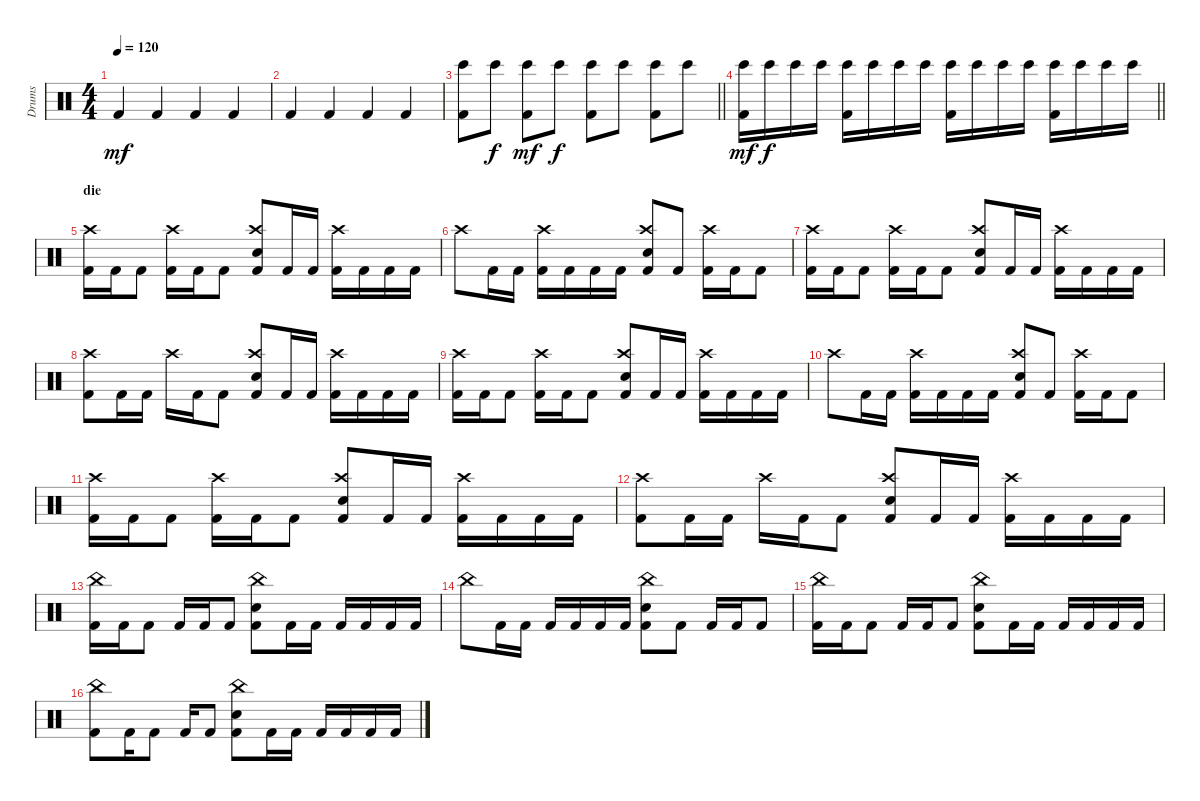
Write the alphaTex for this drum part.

\track ("Drums" "Drums") {instrument percussion}
\staff {score}
\articulation defaults
\ts (4 4)
\tempo 120
\clef neutral
\ks c "Kick (hit) 2".4{dy mf} "Kick (hit) 2".4 "Kick (hit) 2".4 "Kick (hit) 2".4
|
"Kick (hit) 2".4 "Kick (hit) 2".4 "Kick (hit) 2".4 "Kick (hit) 2".4 |
\barLineRight lightlight
("Bongo High (hit)" "Kick (hit) 2").8 "Bongo High (hit)".8{dy f} ("Bongo High (hit)" "Kick (hit) 2").8{dy mf} "Bongo High (hit)".8{dy f} ("Bongo High (hit)" "Kick (hit) 2").8 "Bongo High (hit)".8 ("Bongo High (hit)" "Kick (hit) 2").8 "Bongo High (hit)".8 |
\section ("" "")
\barLineRight lightlight
("Bongo High (hit)" "Kick (hit) 2").16{dy mf} "Bongo High (hit)".16{dy f} "Bongo High (hit)".16 "Bongo High (hit)".16 ("Bongo High (hit)" "Kick (hit) 2").16 "Bongo High (hit)".16 "Bongo High (hit)".16 "Bongo High (hit)".16 ("Bongo High (hit)" "Kick (hit) 2").16 "Bongo High (hit)".16 "Bongo High (hit)".16 "Bongo High (hit)".16 ("Bongo High (hit)" "Kick (hit) 2").16 "Bongo High (hit)".16 "Bongo High (hit)".16 "Bongo High (hit)".16 |
\section ("" "die")
("Crash high (hit)" "Kick (hit) 2").16 "Kick (hit) 2".16 "Kick (hit) 2".8 ("Crash high (hit)" "Kick (hit) 2").16 "Kick (hit) 2".16 "Kick (hit) 2".8 ("Crash high (hit)" "Electric Snare (hit)" "Kick (hit) 2").8 "Kick (hit) 2".16 "Kick (hit) 2".16 ("Crash high (hit)" "Kick (hit) 2").16 "Kick (hit) 2".16 "Kick (hit) 2".16 "Kick (hit) 2".16 |
"Crash high (hit)".8 "Kick (hit) 2".16 "Kick (hit) 2".16 ("Crash high (hit)" "Kick (hit) 2").16 "Kick (hit) 2".16 "Kick (hit) 2".16 "Kick (hit) 2".16 ("Crash high (hit)" "Electric Snare (hit)" "Kick (hit) 2").8 "Kick (hit) 2".8 ("Crash high (hit)" "Kick (hit) 2").16 "Kick (hit) 2".16 "Kick (hit) 2".8 |
("Crash high (hit)" "Kick (hit) 2").16 "Kick (hit) 2".16 "Kick (hit) 2".8 ("Crash high (hit)" "Kick (hit) 2").16 "Kick (hit) 2".16 "Kick (hit) 2".8 ("Crash high (hit)" "Electric Snare (hit)" "Kick (hit) 2").8 "Kick (hit) 2".16 "Kick (hit) 2".16 ("Crash high (hit)" "Kick (hit) 2").16 "Kick (hit) 2".16 "Kick (hit) 2".16 "Kick (hit) 2".16 |
("Crash high (hit)" "Kick (hit) 2").8 "Kick (hit) 2".16 "Kick (hit) 2".16 "Crash high (hit)".16 "Kick (hit) 2".16 "Kick (hit) 2".8 ("Crash high (hit)" "Electric Snare (hit)" "Kick (hit) 2").8 "Kick (hit) 2".16 "Kick (hit) 2".16 ("Crash high (hit)" "Kick (hit) 2").16 "Kick (hit) 2".16 "Kick (hit) 2".16 "Kick (hit) 2".16 |
("Crash high (hit)" "Kick (hit) 2").16 "Kick (hit) 2".16 "Kick (hit) 2".8 ("Crash high (hit)" "Kick (hit) 2").16 "Kick (hit) 2".16 "Kick (hit) 2".8 ("Crash high (hit)" "Electric Snare (hit)" "Kick (hit) 2").8 "Kick (hit) 2".16 "Kick (hit) 2".16 ("Crash high (hit)" "Kick (hit) 2").16 "Kick (hit) 2".16 "Kick (hit) 2".16 "Kick (hit) 2".16 |
"Crash high (hit)".8 "Kick (hit) 2".16 "Kick (hit) 2".16 ("Crash high (hit)" "Kick (hit) 2").16 "Kick (hit) 2".16 "Kick (hit) 2".16 "Kick (hit) 2".16 ("Crash high (hit)" "Electric Snare (hit)" "Kick (hit) 2").8 "Kick (hit) 2".8 ("Crash high (hit)" "Kick (hit) 2").16 "Kick (hit) 2".16 "Kick (hit) 2".8 |
("Crash high (hit)" "Kick (hit) 2").16 "Kick (hit) 2".16 "Kick (hit) 2".8 ("Crash high (hit)" "Kick (hit) 2").16 "Kick (hit) 2".16 "Kick (hit) 2".8 ("Crash high (hit)" "Electric Snare (hit)" "Kick (hit) 2").8 "Kick (hit) 2".16 "Kick (hit) 2".16 ("Crash high (hit)" "Kick (hit) 2").16 "Kick (hit) 2".16 "Kick (hit) 2".16 "Kick (hit) 2".16 |
("Crash high (hit)" "Kick (hit) 2").8 "Kick (hit) 2".16 "Kick (hit) 2".16 "Crash high (hit)".16 "Kick (hit) 2".16 "Kick (hit) 2".8 ("Crash high (hit)" "Electric Snare (hit)" "Kick (hit) 2").8 "Kick (hit) 2".16 "Kick (hit) 2".16 ("Crash high (hit)" "Kick (hit) 2").16 "Kick (hit) 2".16 "Kick (hit) 2".16 "Kick (hit) 2".16 |
("China (hit)" "Kick (hit) 2").16 "Kick (hit) 2".16 "Kick (hit) 2".8 "Kick (hit) 2".16 "Kick (hit) 2".16 "Kick (hit) 2".8 ("China (hit)" "Electric Snare (hit)" "Kick (hit) 2").8 "Kick (hit) 2".16 "Kick (hit) 2".16 "Kick (hit) 2".16 "Kick (hit) 2".16 "Kick (hit) 2".16 "Kick (hit) 2".16 |
"China (hit)".8 "Kick (hit) 2".16 "Kick (hit) 2".16 "Kick (hit) 2".16 "Kick (hit) 2".16 "Kick (hit) 2".16 "Kick (hit) 2".16 ("China (hit)" "Electric Snare (hit)" "Kick (hit) 2").8 "Kick (hit) 2".8 "Kick (hit) 2".16 "Kick (hit) 2".16 "Kick (hit) 2".8 |
("China (hit)" "Kick (hit) 2").16 "Kick (hit) 2".16 "Kick (hit) 2".8 "Kick (hit) 2".16 "Kick (hit) 2".16 "Kick (hit) 2".8 ("China (hit)" "Electric Snare (hit)" "Kick (hit) 2").8 "Kick (hit) 2".16 "Kick (hit) 2".16 "Kick (hit) 2".16 "Kick (hit) 2".16 "Kick (hit) 2".16 "Kick (hit) 2".16 |
("China (hit)" "Kick (hit) 2").8 "Kick (hit) 2".16 "Kick (hit) 2".8 "Kick (hit) 2".16 "Kick (hit) 2".8 ("China (hit)" "Electric Snare (hit)" "Kick (hit) 2").8 "Kick (hit) 2".16 "Kick (hit) 2".16 "Kick (hit) 2".16 "Kick (hit) 2".16 "Kick (hit) 2".16 "Kick (hit) 2".16
